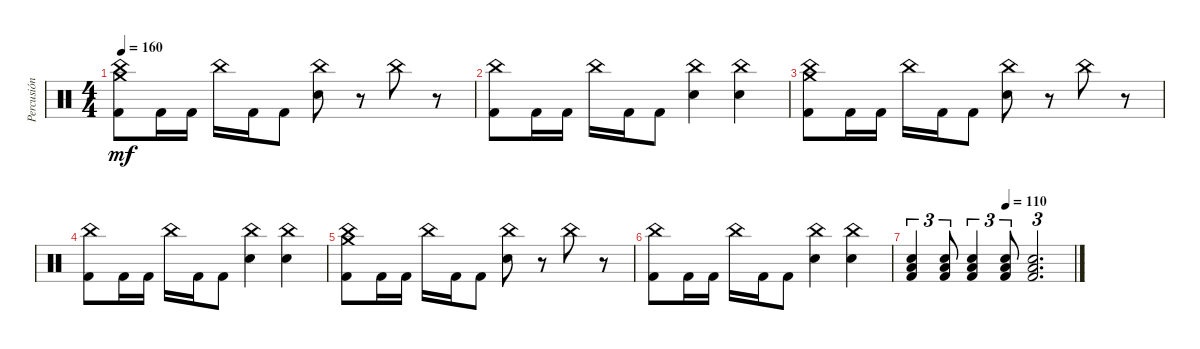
\track ("Percusión" "Percusión") {instrument percussion}
\staff {score}
\articulation defaults
\ts (4 4)
\tempo 160
\clef neutral
\ks c
("Crash medium (hit)" "China (hit)" "Kick (hit) 2").8{dy mf} "Kick (hit) 2".16 "Kick (hit) 2".16 "China (hit)".16 "Kick (hit) 2".16 "Kick (hit) 2".8 ("Electric Snare (hit)" "China (hit)").8 r.8 "China (hit)".8 r.8 |
("China (hit)" "Kick (hit) 2").8 "Kick (hit) 2".16 "Kick (hit) 2".16 "China (hit)".16 "Kick (hit) 2".16 "Kick (hit) 2".8 ("Electric Snare (hit)" "China (hit)").4 ("Electric Snare (hit)" "China (hit)").4 |
("Crash medium (hit)" "China (hit)" "Kick (hit) 2").8 "Kick (hit) 2".16 "Kick (hit) 2".16 "China (hit)".16 "Kick (hit) 2".16 "Kick (hit) 2".8 ("Electric Snare (hit)" "China (hit)").8 r.8 "China (hit)".8 r.8 |
("China (hit)" "Kick (hit) 2").8 "Kick (hit) 2".16 "Kick (hit) 2".16 "China (hit)".16 "Kick (hit) 2".16 "Kick (hit) 2".8 ("Electric Snare (hit)" "China (hit)").4 ("Electric Snare (hit)" "China (hit)").4 |
("Crash medium (hit)" "China (hit)" "Kick (hit) 2").8 "Kick (hit) 2".16 "Kick (hit) 2".16 "China (hit)".16 "Kick (hit) 2".16 "Kick (hit) 2".8 ("Electric Snare (hit)" "China (hit)").8 r.8 "China (hit)".8 r.8 |
("China (hit)" "Kick (hit) 2").8 "Kick (hit) 2".16 "Kick (hit) 2".16 "China (hit)".16 "Kick (hit) 2".16 "Kick (hit) 2".8 ("Electric Snare (hit)" "China (hit)").4 ("Electric Snare (hit)" "China (hit)").4 |
\tempo (110 0.5833333333333334)
("Low Floor Tom (hit)" "Electric Snare (hit)" "Kick (hit) 2").4{tu (3 2)} ("Low Floor Tom (hit)" "Electric Snare (hit)" "Kick (hit) 2").8{tu (3 2)} ("Low Floor Tom (hit)" "Electric Snare (hit)" "Kick (hit) 2").4{tu (3 2)} ("Low Floor Tom (hit)" "Electric Snare (hit)" "Kick (hit) 2").8{tu (3 2)} ("Low Floor Tom (hit)" "Electric Snare (hit)" "Kick (hit) 2").2{d tu (3 2)}
